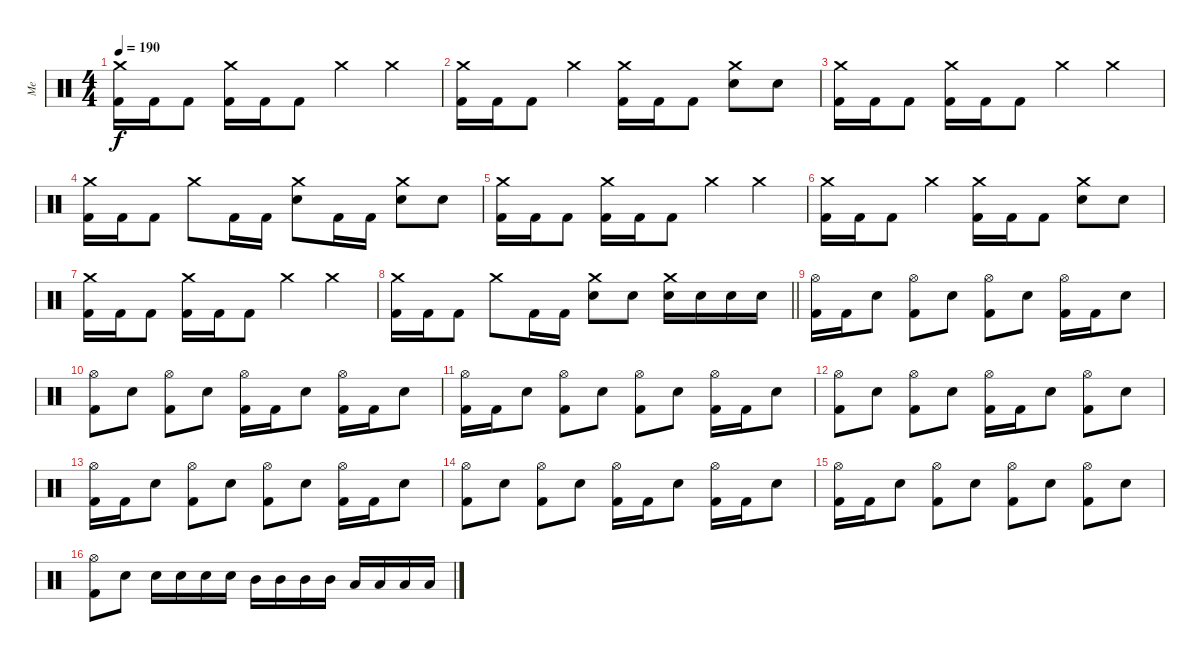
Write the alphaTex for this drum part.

\track ("Me" "Me") {instrument percussion}
\staff {score}
\articulation defaults
\ts (4 4)
\tempo 190
\clef neutral
\ks c
("Crash medium (hit)" "Kick (hit) 2").16{dy f} "Kick (hit) 2".16 "Kick (hit) 2".8 ("Crash medium (hit)" "Kick (hit) 2").16 "Kick (hit) 2".16 "Kick (hit) 2".8 "Crash medium (hit)".4 "Crash medium (hit)".4 |
("Crash medium (hit)" "Kick (hit) 2").16 "Kick (hit) 2".16 "Kick (hit) 2".8 "Crash medium (hit)".4 ("Crash medium (hit)" "Kick (hit) 2").16 "Kick (hit) 2".16 "Kick (hit) 2".8 ("Crash medium (hit)" "Snare (hit) 2").8 "Snare (hit) 2".8 |
("Crash medium (hit)" "Kick (hit) 2").16 "Kick (hit) 2".16 "Kick (hit) 2".8 ("Crash medium (hit)" "Kick (hit) 2").16 "Kick (hit) 2".16 "Kick (hit) 2".8 "Crash medium (hit)".4 "Crash medium (hit)".4 |
("Crash medium (hit)" "Kick (hit) 2").16 "Kick (hit) 2".16 "Kick (hit) 2".8 "Crash medium (hit)".8 "Kick (hit) 2".16 "Kick (hit) 2".16 ("Crash medium (hit)" "Snare (hit) 2").8 "Kick (hit) 2".16 "Kick (hit) 2".16 ("Crash medium (hit)" "Snare (hit) 2").8 "Snare (hit) 2".8 |
("Crash medium (hit)" "Kick (hit) 2").16 "Kick (hit) 2".16 "Kick (hit) 2".8 ("Crash medium (hit)" "Kick (hit) 2").16 "Kick (hit) 2".16 "Kick (hit) 2".8 "Crash medium (hit)".4 "Crash medium (hit)".4 |
("Crash medium (hit)" "Kick (hit) 2").16 "Kick (hit) 2".16 "Kick (hit) 2".8 "Crash medium (hit)".4 ("Crash medium (hit)" "Kick (hit) 2").16 "Kick (hit) 2".16 "Kick (hit) 2".8 ("Crash medium (hit)" "Snare (hit) 2").8 "Snare (hit) 2".8 |
("Crash medium (hit)" "Kick (hit) 2").16 "Kick (hit) 2".16 "Kick (hit) 2".8 ("Crash medium (hit)" "Kick (hit) 2").16 "Kick (hit) 2".16 "Kick (hit) 2".8 "Crash medium (hit)".4 "Crash medium (hit)".4 |
\barLineRight lightlight
("Crash medium (hit)" "Kick (hit) 2").16 "Kick (hit) 2".16 "Kick (hit) 2".8 "Crash medium (hit)".8 "Kick (hit) 2".16 "Kick (hit) 2".16 ("Crash medium (hit)" "Snare (hit) 2").8 "Snare (hit) 2".8 ("Crash medium (hit)" "Snare (hit) 2").16 "Snare (hit) 2".16 "Snare (hit) 2".16 "Snare (hit) 2".16 |
("Hi-Hat (open)" "Kick (hit) 2").16 "Kick (hit) 2".16 "Snare (hit) 2".8 ("Hi-Hat (open)" "Kick (hit) 2").8 "Snare (hit) 2".8 ("Hi-Hat (open)" "Kick (hit) 2").8 "Snare (hit) 2".8 ("Hi-Hat (open)" "Kick (hit) 2").16 "Kick (hit) 2".16 "Snare (hit) 2".8 |
("Hi-Hat (open)" "Kick (hit) 2").8 "Snare (hit) 2".8 ("Hi-Hat (open)" "Kick (hit) 2").8 "Snare (hit) 2".8 ("Hi-Hat (open)" "Kick (hit) 2").16 "Kick (hit) 2".16 "Snare (hit) 2".8 ("Hi-Hat (open)" "Kick (hit) 2").16 "Kick (hit) 2".16 "Snare (hit) 2".8 |
("Hi-Hat (open)" "Kick (hit) 2").16 "Kick (hit) 2".16 "Snare (hit) 2".8 ("Hi-Hat (open)" "Kick (hit) 2").8 "Snare (hit) 2".8 ("Hi-Hat (open)" "Kick (hit) 2").8 "Snare (hit) 2".8 ("Hi-Hat (open)" "Kick (hit) 2").16 "Kick (hit) 2".16 "Snare (hit) 2".8 |
("Hi-Hat (open)" "Kick (hit) 2").8 "Snare (hit) 2".8 ("Hi-Hat (open)" "Kick (hit) 2").8 "Snare (hit) 2".8 ("Hi-Hat (open)" "Kick (hit) 2").16 "Kick (hit) 2".16 "Snare (hit) 2".8 ("Hi-Hat (open)" "Kick (hit) 2").8 "Snare (hit) 2".8 |
("Hi-Hat (open)" "Kick (hit) 2").16 "Kick (hit) 2".16 "Snare (hit) 2".8 ("Hi-Hat (open)" "Kick (hit) 2").8 "Snare (hit) 2".8 ("Hi-Hat (open)" "Kick (hit) 2").8 "Snare (hit) 2".8 ("Hi-Hat (open)" "Kick (hit) 2").16 "Kick (hit) 2".16 "Snare (hit) 2".8 |
("Hi-Hat (open)" "Kick (hit) 2").8 "Snare (hit) 2".8 ("Hi-Hat (open)" "Kick (hit) 2").8 "Snare (hit) 2".8 ("Hi-Hat (open)" "Kick (hit) 2").16 "Kick (hit) 2".16 "Snare (hit) 2".8 ("Hi-Hat (open)" "Kick (hit) 2").16 "Kick (hit) 2".16 "Snare (hit) 2".8 |
("Hi-Hat (open)" "Kick (hit) 2").16 "Kick (hit) 2".16 "Snare (hit) 2".8 ("Hi-Hat (open)" "Kick (hit) 2").8 "Snare (hit) 2".8 ("Hi-Hat (open)" "Kick (hit) 2").8 "Snare (hit) 2".8 ("Hi-Hat (open)" "Kick (hit) 2").8 "Snare (hit) 2".8 |
("Hi-Hat (open)" "Kick (hit) 2").8 "Snare (hit) 2".8 "Snare (hit) 2".16 "Snare (hit) 2".16 "Snare (hit) 2".16 "Snare (hit) 2".16 "Mid Tom (hit)".16 "Mid Tom (hit)".16 "Mid Tom (hit)".16 "Mid Tom (hit)".16 "Low Tom (hit)".16 "Low Tom (hit)".16 "Low Tom (hit)".16 "Low Tom (hit)".16
